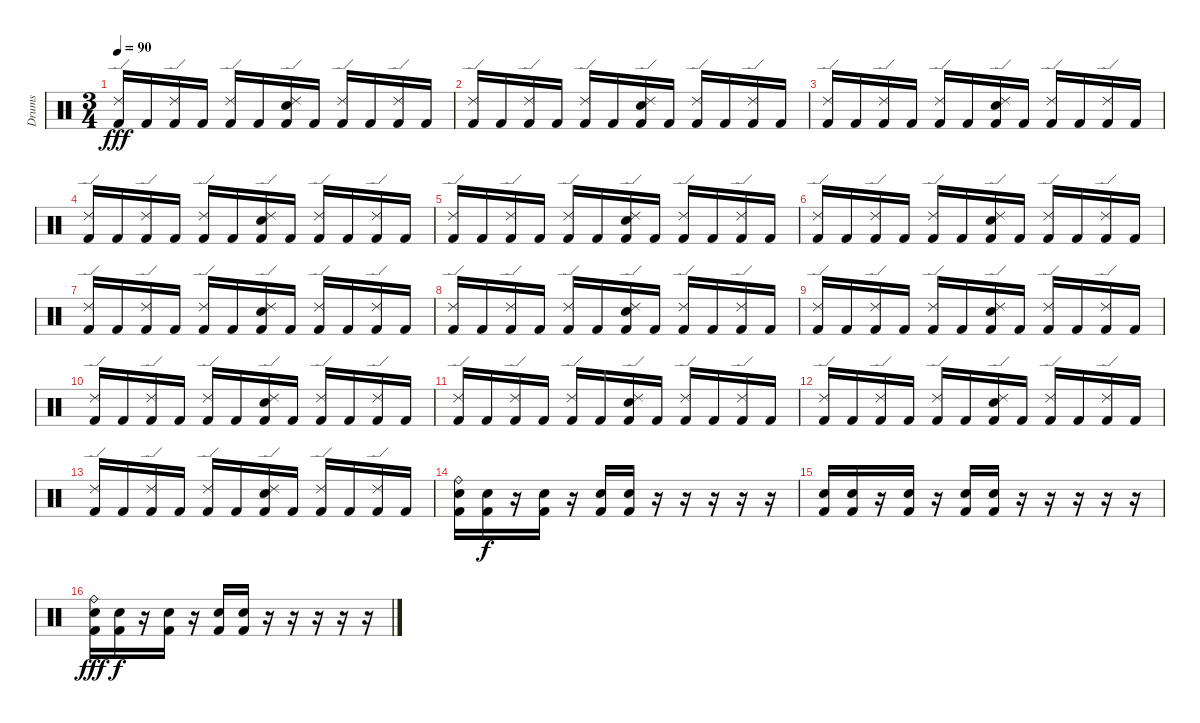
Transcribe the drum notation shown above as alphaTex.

\track ("Drums" "Drums") {instrument percussion}
\staff {score}
\articulation defaults
\ts (3 4)
\tempo 90
\clef neutral
\ks c
("Kick (hit) 2" "Ride (edge) 2").16{dy fff} "Kick (hit) 2".16 ("Kick (hit) 2" "Ride (edge) 2").16 "Kick (hit) 2".16 ("Kick (hit) 2" "Ride (edge) 2").16 "Kick (hit) 2".16 ("Kick (hit) 2" "Snare (hit) 2" "Ride (edge) 2").16 "Kick (hit) 2".16 ("Kick (hit) 2" "Ride (edge) 2").16 "Kick (hit) 2".16 ("Kick (hit) 2" "Ride (edge) 2").16 "Kick (hit) 2".16 |
("Kick (hit) 2" "Ride (edge) 2").16 "Kick (hit) 2".16 ("Kick (hit) 2" "Ride (edge) 2").16 "Kick (hit) 2".16 ("Kick (hit) 2" "Ride (edge) 2").16 "Kick (hit) 2".16 ("Kick (hit) 2" "Snare (hit) 2" "Ride (edge) 2").16 "Kick (hit) 2".16 ("Kick (hit) 2" "Ride (edge) 2").16 "Kick (hit) 2".16 ("Kick (hit) 2" "Ride (edge) 2").16 "Kick (hit) 2".16 |
("Kick (hit) 2" "Ride (edge) 2").16 "Kick (hit) 2".16 ("Kick (hit) 2" "Ride (edge) 2").16 "Kick (hit) 2".16 ("Kick (hit) 2" "Ride (edge) 2").16 "Kick (hit) 2".16 ("Kick (hit) 2" "Snare (hit) 2" "Ride (edge) 2").16 "Kick (hit) 2".16 ("Kick (hit) 2" "Ride (edge) 2").16 "Kick (hit) 2".16 ("Kick (hit) 2" "Ride (edge) 2").16 "Kick (hit) 2".16 |
("Kick (hit) 2" "Ride (edge) 2").16 "Kick (hit) 2".16 ("Kick (hit) 2" "Ride (edge) 2").16 "Kick (hit) 2".16 ("Kick (hit) 2" "Ride (edge) 2").16 "Kick (hit) 2".16 ("Kick (hit) 2" "Snare (hit) 2" "Ride (edge) 2").16 "Kick (hit) 2".16 ("Kick (hit) 2" "Ride (edge) 2").16 "Kick (hit) 2".16 ("Kick (hit) 2" "Ride (edge) 2").16 "Kick (hit) 2".16 |
("Kick (hit) 2" "Ride (edge) 2").16 "Kick (hit) 2".16 ("Kick (hit) 2" "Ride (edge) 2").16 "Kick (hit) 2".16 ("Kick (hit) 2" "Ride (edge) 2").16 "Kick (hit) 2".16 ("Kick (hit) 2" "Snare (hit) 2" "Ride (edge) 2").16 "Kick (hit) 2".16 ("Kick (hit) 2" "Ride (edge) 2").16 "Kick (hit) 2".16 ("Kick (hit) 2" "Ride (edge) 2").16 "Kick (hit) 2".16 |
("Kick (hit) 2" "Ride (edge) 2").16 "Kick (hit) 2".16 ("Kick (hit) 2" "Ride (edge) 2").16 "Kick (hit) 2".16 ("Kick (hit) 2" "Ride (edge) 2").16 "Kick (hit) 2".16 ("Kick (hit) 2" "Snare (hit) 2" "Ride (edge) 2").16 "Kick (hit) 2".16 ("Kick (hit) 2" "Ride (edge) 2").16 "Kick (hit) 2".16 ("Kick (hit) 2" "Ride (edge) 2").16 "Kick (hit) 2".16 |
("Kick (hit) 2" "Ride (edge) 2").16 "Kick (hit) 2".16 ("Kick (hit) 2" "Ride (edge) 2").16 "Kick (hit) 2".16 ("Kick (hit) 2" "Ride (edge) 2").16 "Kick (hit) 2".16 ("Kick (hit) 2" "Snare (hit) 2" "Ride (edge) 2").16 "Kick (hit) 2".16 ("Kick (hit) 2" "Ride (edge) 2").16 "Kick (hit) 2".16 ("Kick (hit) 2" "Ride (edge) 2").16 "Kick (hit) 2".16 |
("Kick (hit) 2" "Ride (edge) 2").16 "Kick (hit) 2".16 ("Kick (hit) 2" "Ride (edge) 2").16 "Kick (hit) 2".16 ("Kick (hit) 2" "Ride (edge) 2").16 "Kick (hit) 2".16 ("Kick (hit) 2" "Snare (hit) 2" "Ride (edge) 2").16 "Kick (hit) 2".16 ("Kick (hit) 2" "Ride (edge) 2").16 "Kick (hit) 2".16 ("Kick (hit) 2" "Ride (edge) 2").16 "Kick (hit) 2".16 |
("Kick (hit) 2" "Ride (edge) 2").16 "Kick (hit) 2".16 ("Kick (hit) 2" "Ride (edge) 2").16 "Kick (hit) 2".16 ("Kick (hit) 2" "Ride (edge) 2").16 "Kick (hit) 2".16 ("Kick (hit) 2" "Snare (hit) 2" "Ride (edge) 2").16 "Kick (hit) 2".16 ("Kick (hit) 2" "Ride (edge) 2").16 "Kick (hit) 2".16 ("Kick (hit) 2" "Ride (edge) 2").16 "Kick (hit) 2".16 |
("Kick (hit) 2" "Ride (edge) 2").16 "Kick (hit) 2".16 ("Kick (hit) 2" "Ride (edge) 2").16 "Kick (hit) 2".16 ("Kick (hit) 2" "Ride (edge) 2").16 "Kick (hit) 2".16 ("Kick (hit) 2" "Snare (hit) 2" "Ride (edge) 2").16 "Kick (hit) 2".16 ("Kick (hit) 2" "Ride (edge) 2").16 "Kick (hit) 2".16 ("Kick (hit) 2" "Ride (edge) 2").16 "Kick (hit) 2".16 |
("Kick (hit) 2" "Ride (edge) 2").16 "Kick (hit) 2".16 ("Kick (hit) 2" "Ride (edge) 2").16 "Kick (hit) 2".16 ("Kick (hit) 2" "Ride (edge) 2").16 "Kick (hit) 2".16 ("Kick (hit) 2" "Snare (hit) 2" "Ride (edge) 2").16 "Kick (hit) 2".16 ("Kick (hit) 2" "Ride (edge) 2").16 "Kick (hit) 2".16 ("Kick (hit) 2" "Ride (edge) 2").16 "Kick (hit) 2".16 |
("Kick (hit) 2" "Ride (edge) 2").16 "Kick (hit) 2".16 ("Kick (hit) 2" "Ride (edge) 2").16 "Kick (hit) 2".16 ("Kick (hit) 2" "Ride (edge) 2").16 "Kick (hit) 2".16 ("Kick (hit) 2" "Snare (hit) 2" "Ride (edge) 2").16 "Kick (hit) 2".16 ("Kick (hit) 2" "Ride (edge) 2").16 "Kick (hit) 2".16 ("Kick (hit) 2" "Ride (edge) 2").16 "Kick (hit) 2".16 |
("Kick (hit) 2" "Ride (edge) 2").16 "Kick (hit) 2".16 ("Kick (hit) 2" "Ride (edge) 2").16 "Kick (hit) 2".16 ("Kick (hit) 2" "Ride (edge) 2").16 "Kick (hit) 2".16 ("Kick (hit) 2" "Snare (hit) 2" "Ride (edge) 2").16 "Kick (hit) 2".16 ("Kick (hit) 2" "Ride (edge) 2").16 "Kick (hit) 2".16 ("Kick (hit) 2" "Ride (edge) 2").16 "Kick (hit) 2".16 |
("Kick (hit) 2" "Snare (hit) 2" "Ride (bell)").16 ("Kick (hit) 2" "Snare (hit) 2").16{dy f} r.16 ("Kick (hit) 2" "Snare (hit) 2").16 r.16 ("Kick (hit) 2" "Snare (hit) 2").16 ("Kick (hit) 2" "Snare (hit) 2").16 r.16 r.16 r.16 r.16 r.16 |
("Kick (hit) 2" "Snare (hit) 2").16 ("Kick (hit) 2" "Snare (hit) 2").16 r.16 ("Kick (hit) 2" "Snare (hit) 2").16 r.16 ("Kick (hit) 2" "Snare (hit) 2").16 ("Kick (hit) 2" "Snare (hit) 2").16 r.16 r.16 r.16 r.16 r.16 |
("Kick (hit) 2" "Snare (hit) 2" "Ride (bell)").16{dy fff} ("Kick (hit) 2" "Snare (hit) 2").16{dy f} r.16 ("Kick (hit) 2" "Snare (hit) 2").16 r.16 ("Kick (hit) 2" "Snare (hit) 2").16 ("Kick (hit) 2" "Snare (hit) 2").16 r.16 r.16 r.16 r.16 r.16
